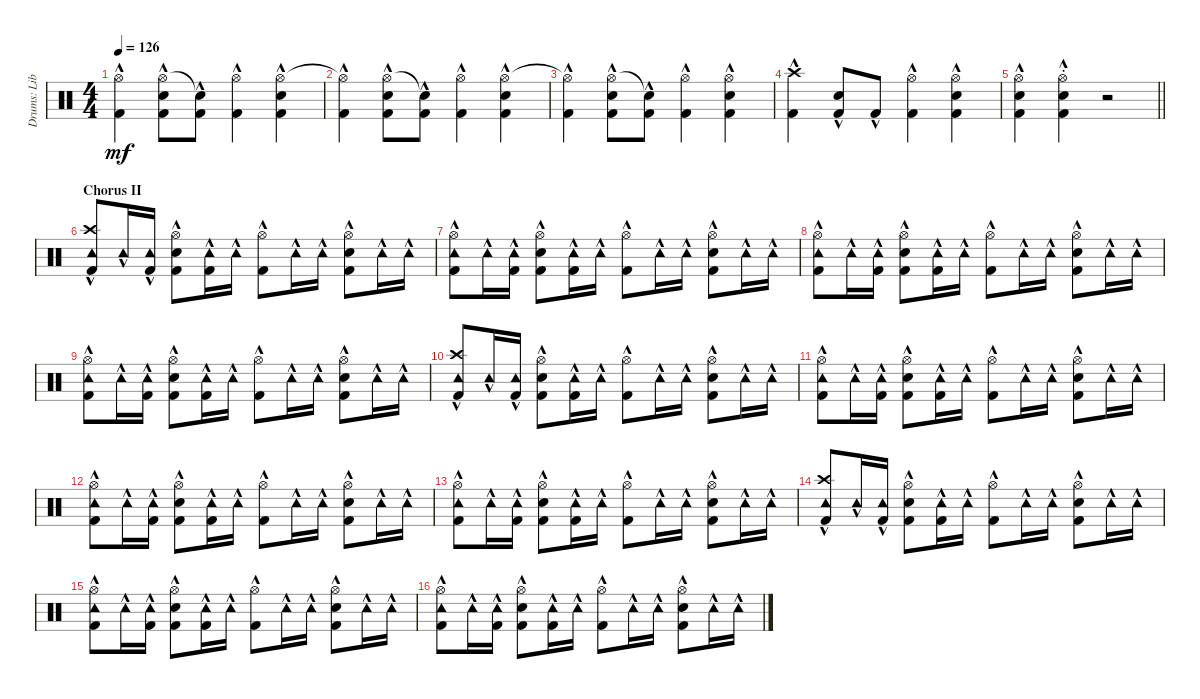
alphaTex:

\track ("Drums: Liberty" "Drums: Lib") {instrument percussion}
\staff {score}
\articulation defaults
\ts (4 4)
\tempo 126
\clef neutral
\ks c
("Hi-Hat (open)"{t} "Kick (hit) 2"{hac}).4{dy mf} ("Hi-Hat (open)" "Snare (hit) 2"{hac} "Kick (hit) 2"{hac}).8 ("Snare (hit)"{t} "Kick (hit) 2"{hac}).8 ("Hi-Hat (open)"{hac} "Kick (hit) 2"{hac}).4 ("Hi-Hat (open)"{hac} "Snare (hit) 2"{hac} "Kick (hit) 2"{hac}).4 |
("Hi-Hat (open)"{t} "Kick (hit) 2"{hac}).4 ("Hi-Hat (open)" "Snare (hit) 2"{hac} "Kick (hit) 2"{hac}).8 ("Snare (hit)"{t} "Kick (hit) 2"{hac}).8 ("Hi-Hat (open)"{hac} "Kick (hit) 2"{hac}).4 ("Hi-Hat (open)"{hac} "Snare (hit) 2"{hac} "Kick (hit) 2"{hac}).4 |
("Hi-Hat (open)"{t} "Kick (hit) 2"{hac}).4 ("Hi-Hat (open)" "Snare (hit) 2"{hac} "Kick (hit) 2"{hac}).8 ("Snare (hit)"{t} "Kick (hit) 2"{hac}).8 ("Hi-Hat (open)"{hac} "Kick (hit) 2"{hac}).4 ("Hi-Hat (open)"{hac} "Snare (hit) 2"{hac} "Kick (hit) 2"{hac}).4 |
("Crash high (hit)"{hac} "Kick (hit) 2"{hac}).4 ("Snare (hit) 2"{hac} "Kick (hit) 2"{hac}).8 "Kick (hit) 2"{hac}.8 ("Hi-Hat (open)"{hac} "Kick (hit) 2"{hac}).4 ("Hi-Hat (open)"{hac} "Snare (hit) 2"{hac} "Kick (hit) 2"{hac}).4 |
\barLineRight lightlight
("Hi-Hat (open)"{hac} "Snare (hit) 2"{hac} "Kick (hit) 2"{hac}).4 ("Hi-Hat (open)"{hac st} "Snare (hit) 2"{hac st} "Kick (hit) 2"{hac st}).4 r.2 |
\section ("" "Chorus II")
("Crash high (hit)" "Tambourine (hit)"{hac} "Kick (hit) 2"{hac}).8 "Tambourine (hit)"{hac}.16 ("Tambourine (hit)"{hac} "Kick (hit) 2"{hac}).16 ("Hi-Hat (open)" "Snare (hit) 2"{hac} "Kick (hit) 2").8 ("Tambourine (hit)"{hac} "Kick (hit) 2"{hac}).16 "Tambourine (hit)"{hac}.16 ("Hi-Hat (open)" "Kick (hit) 2"{hac}).8 "Tambourine (hit)"{hac}.16 "Tambourine (hit)"{hac}.16 ("Hi-Hat (open)" "Snare (hit) 2"{hac} "Kick (hit) 2").8 "Tambourine (hit)"{hac}.16 "Tambourine (hit)"{hac}.16 |
("Hi-Hat (open)" "Tambourine (hit)"{hac} "Kick (hit) 2"{hac}).8 "Tambourine (hit)"{hac}.16 ("Tambourine (hit)"{hac} "Kick (hit) 2"{hac}).16 ("Hi-Hat (open)" "Snare (hit) 2"{hac} "Kick (hit) 2").8 ("Tambourine (hit)"{hac} "Kick (hit) 2"{hac}).16 "Tambourine (hit)"{hac}.16 ("Hi-Hat (open)" "Kick (hit) 2"{hac}).8 "Tambourine (hit)"{hac}.16 "Tambourine (hit)"{hac}.16 ("Hi-Hat (open)" "Snare (hit) 2"{hac} "Kick (hit) 2").8 "Tambourine (hit)"{hac}.16 "Tambourine (hit)"{hac}.16 |
("Hi-Hat (open)" "Tambourine (hit)"{hac} "Kick (hit) 2"{hac}).8 "Tambourine (hit)"{hac}.16 ("Tambourine (hit)"{hac} "Kick (hit) 2"{hac}).16 ("Hi-Hat (open)" "Snare (hit) 2"{hac} "Kick (hit) 2").8 ("Tambourine (hit)"{hac} "Kick (hit) 2"{hac}).16 "Tambourine (hit)"{hac}.16 ("Hi-Hat (open)" "Kick (hit) 2"{hac}).8 "Tambourine (hit)"{hac}.16 "Tambourine (hit)"{hac}.16 ("Hi-Hat (open)" "Snare (hit) 2"{hac} "Kick (hit) 2").8 "Tambourine (hit)"{hac}.16 "Tambourine (hit)"{hac}.16 |
("Hi-Hat (open)" "Tambourine (hit)"{hac} "Kick (hit) 2"{hac}).8 "Tambourine (hit)"{hac}.16 ("Tambourine (hit)"{hac} "Kick (hit) 2"{hac}).16 ("Hi-Hat (open)" "Snare (hit) 2"{hac} "Kick (hit) 2").8 ("Tambourine (hit)"{hac} "Kick (hit) 2"{hac}).16 "Tambourine (hit)"{hac}.16 ("Hi-Hat (open)" "Kick (hit) 2"{hac}).8 "Tambourine (hit)"{hac}.16 "Tambourine (hit)"{hac}.16 ("Hi-Hat (open)" "Snare (hit) 2"{hac} "Kick (hit) 2").8 "Tambourine (hit)"{hac}.16 "Tambourine (hit)"{hac}.16 |
("Crash high (hit)" "Tambourine (hit)"{hac} "Kick (hit) 2"{hac}).8 "Tambourine (hit)"{hac}.16 ("Tambourine (hit)"{hac} "Kick (hit) 2"{hac}).16 ("Hi-Hat (open)" "Snare (hit) 2"{hac} "Kick (hit) 2").8 ("Tambourine (hit)"{hac} "Kick (hit) 2"{hac}).16 "Tambourine (hit)"{hac}.16 ("Hi-Hat (open)" "Kick (hit) 2"{hac}).8 "Tambourine (hit)"{hac}.16 "Tambourine (hit)"{hac}.16 ("Hi-Hat (open)" "Snare (hit) 2"{hac} "Kick (hit) 2").8 "Tambourine (hit)"{hac}.16 "Tambourine (hit)"{hac}.16 |
("Hi-Hat (open)" "Tambourine (hit)"{hac} "Kick (hit) 2"{hac}).8 "Tambourine (hit)"{hac}.16 ("Tambourine (hit)"{hac} "Kick (hit) 2"{hac}).16 ("Hi-Hat (open)" "Snare (hit) 2"{hac} "Kick (hit) 2").8 ("Tambourine (hit)"{hac} "Kick (hit) 2"{hac}).16 "Tambourine (hit)"{hac}.16 ("Hi-Hat (open)" "Kick (hit) 2"{hac}).8 "Tambourine (hit)"{hac}.16 "Tambourine (hit)"{hac}.16 ("Hi-Hat (open)" "Snare (hit) 2"{hac} "Kick (hit) 2").8 "Tambourine (hit)"{hac}.16 "Tambourine (hit)"{hac}.16 |
("Hi-Hat (open)" "Tambourine (hit)"{hac} "Kick (hit) 2"{hac}).8 "Tambourine (hit)"{hac}.16 ("Tambourine (hit)"{hac} "Kick (hit) 2"{hac}).16 ("Hi-Hat (open)" "Snare (hit) 2"{hac} "Kick (hit) 2").8 ("Tambourine (hit)"{hac} "Kick (hit) 2"{hac}).16 "Tambourine (hit)"{hac}.16 ("Hi-Hat (open)" "Kick (hit) 2"{hac}).8 "Tambourine (hit)"{hac}.16 "Tambourine (hit)"{hac}.16 ("Hi-Hat (open)" "Snare (hit) 2"{hac} "Kick (hit) 2").8 "Tambourine (hit)"{hac}.16 "Tambourine (hit)"{hac}.16 |
("Hi-Hat (open)" "Tambourine (hit)"{hac} "Kick (hit) 2"{hac}).8 "Tambourine (hit)"{hac}.16 ("Tambourine (hit)"{hac} "Kick (hit) 2"{hac}).16 ("Hi-Hat (open)" "Snare (hit) 2"{hac} "Kick (hit) 2").8 ("Tambourine (hit)"{hac} "Kick (hit) 2"{hac}).16 "Tambourine (hit)"{hac}.16 ("Hi-Hat (open)" "Kick (hit) 2"{hac}).8 "Tambourine (hit)"{hac}.16 "Tambourine (hit)"{hac}.16 ("Hi-Hat (open)" "Snare (hit) 2"{hac} "Kick (hit) 2").8 "Tambourine (hit)"{hac}.16 "Tambourine (hit)"{hac}.16 |
("Crash high (hit)" "Tambourine (hit)"{hac} "Kick (hit) 2"{hac}).8 "Tambourine (hit)"{hac}.16 ("Tambourine (hit)"{hac} "Kick (hit) 2"{hac}).16 ("Hi-Hat (open)" "Snare (hit) 2"{hac} "Kick (hit) 2").8 ("Tambourine (hit)"{hac} "Kick (hit) 2"{hac}).16 "Tambourine (hit)"{hac}.16 ("Hi-Hat (open)" "Kick (hit) 2"{hac}).8 "Tambourine (hit)"{hac}.16 "Tambourine (hit)"{hac}.16 ("Hi-Hat (open)" "Snare (hit) 2"{hac} "Kick (hit) 2").8 "Tambourine (hit)"{hac}.16 "Tambourine (hit)"{hac}.16 |
("Hi-Hat (open)" "Tambourine (hit)"{hac} "Kick (hit) 2"{hac}).8 "Tambourine (hit)"{hac}.16 ("Tambourine (hit)"{hac} "Kick (hit) 2"{hac}).16 ("Hi-Hat (open)" "Snare (hit) 2"{hac} "Kick (hit) 2").8 ("Tambourine (hit)"{hac} "Kick (hit) 2"{hac}).16 "Tambourine (hit)"{hac}.16 ("Hi-Hat (open)" "Kick (hit) 2"{hac}).8 "Tambourine (hit)"{hac}.16 "Tambourine (hit)"{hac}.16 ("Hi-Hat (open)" "Snare (hit) 2"{hac} "Kick (hit) 2").8 "Tambourine (hit)"{hac}.16 "Tambourine (hit)"{hac}.16 |
("Hi-Hat (open)" "Tambourine (hit)"{hac} "Kick (hit) 2"{hac}).8 "Tambourine (hit)"{hac}.16 ("Tambourine (hit)"{hac} "Kick (hit) 2"{hac}).16 ("Hi-Hat (open)" "Snare (hit) 2"{hac} "Kick (hit) 2").8 ("Tambourine (hit)"{hac} "Kick (hit) 2"{hac}).16 "Tambourine (hit)"{hac}.16 ("Hi-Hat (open)" "Kick (hit) 2"{hac}).8 "Tambourine (hit)"{hac}.16 "Tambourine (hit)"{hac}.16 ("Hi-Hat (open)" "Snare (hit) 2"{hac} "Kick (hit) 2").8 "Tambourine (hit)"{hac}.16 "Tambourine (hit)"{hac}.16
